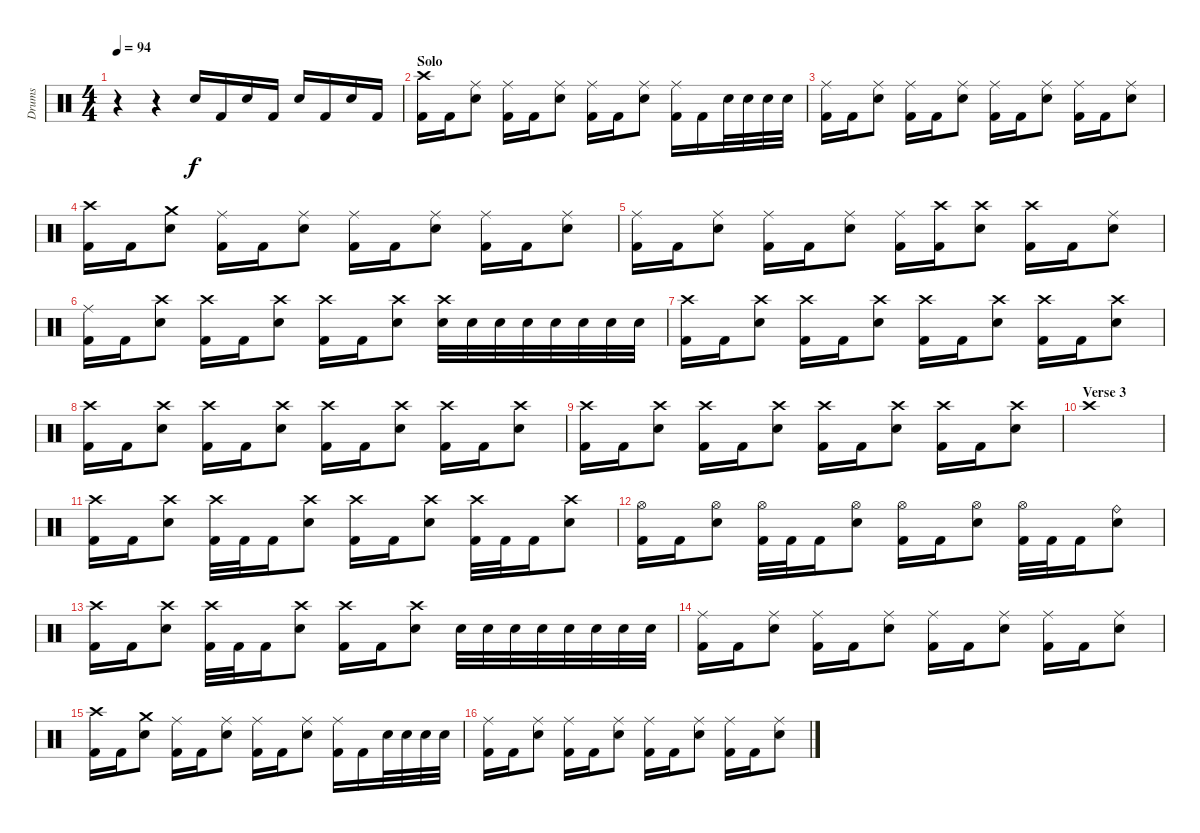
\track ("Drums" "Drums") {instrument percussion}
\staff {score}
\articulation defaults
\ts (4 4)
\tempo 94
\clef neutral
\ks c
r.4{dy f} r.4 "Electric Snare (hit)".16 "Kick (hit) 2".16 "Electric Snare (hit)".16 "Kick (hit) 2".16 "Electric Snare (hit)".16 "Kick (hit) 2".16 "Electric Snare (hit)".16 "Kick (hit) 2".16 |
\section ("" "Solo")
("Crash high (hit)" "Kick (hit) 2").16 "Kick (hit) 2".16 ("Ride (middle)" "Electric Snare (hit)").8 ("Ride (middle)" "Kick (hit) 2").16 "Kick (hit) 2".16 ("Ride (middle)" "Electric Snare (hit)").8 ("Ride (middle)" "Kick (hit) 2").16 "Kick (hit) 2".16 ("Ride (middle)" "Electric Snare (hit)").8 ("Ride (middle)" "Kick (hit) 2").16 "Kick (hit) 2".16 "Electric Snare (hit)".32 "Electric Snare (hit)".32 "Electric Snare (hit)".32 "Electric Snare (hit)".32 |
("Ride (middle)" "Kick (hit) 2").16 "Kick (hit) 2".16 ("Ride (middle)" "Electric Snare (hit)").8 ("Ride (middle)" "Kick (hit) 2").16 "Kick (hit) 2".16 ("Ride (middle)" "Electric Snare (hit)").8 ("Ride (middle)" "Kick (hit) 2").16 "Kick (hit) 2".16 ("Ride (middle)" "Electric Snare (hit)").8 ("Ride (middle)" "Kick (hit) 2").16 "Kick (hit) 2".16 ("Ride (middle)" "Electric Snare (hit)").8 |
("Crash high (hit)" "Kick (hit) 2").16 "Kick (hit) 2".16 ("Crash medium (hit)" "Electric Snare (hit)").8 ("Ride (middle)" "Kick (hit) 2").16 "Kick (hit) 2".16 ("Ride (middle)" "Electric Snare (hit)").8 ("Ride (middle)" "Kick (hit) 2").16 "Kick (hit) 2".16 ("Ride (middle)" "Electric Snare (hit)").8 ("Ride (middle)" "Kick (hit) 2").16 "Kick (hit) 2".16 ("Ride (middle)" "Electric Snare (hit)").8 |
("Ride (middle)" "Kick (hit) 2").16 "Kick (hit) 2".16 ("Ride (middle)" "Electric Snare (hit)").8 ("Ride (middle)" "Kick (hit) 2").16 "Kick (hit) 2".16 ("Ride (middle)" "Electric Snare (hit)").8 ("Ride (middle)" "Kick (hit) 2").16 ("Crash high (hit)" "Kick (hit) 2").16 ("Crash high (hit)" "Electric Snare (hit)").8 ("Crash high (hit)" "Kick (hit) 2").16 "Kick (hit) 2".16 ("Ride (middle)" "Electric Snare (hit)").8 |
("Ride (middle)" "Kick (hit) 2").16 "Kick (hit) 2".16 ("Crash high (hit)" "Electric Snare (hit)").8 ("Crash high (hit)" "Kick (hit) 2").16 "Kick (hit) 2".16 ("Crash high (hit)" "Electric Snare (hit)").8 ("Crash high (hit)" "Kick (hit) 2").16 "Kick (hit) 2".16 ("Crash high (hit)" "Electric Snare (hit)").8 ("Crash high (hit)" "Electric Snare (hit)").32 "Electric Snare (hit)".32 "Electric Snare (hit)".32 "Electric Snare (hit)".32 "Electric Snare (hit)".32 "Electric Snare (hit)".32 "Electric Snare (hit)".32 "Electric Snare (hit)".32 |
("Crash high (hit)" "Kick (hit) 2").16 "Kick (hit) 2".16 ("Crash high (hit)" "Electric Snare (hit)").8 ("Crash high (hit)" "Kick (hit) 2").16 "Kick (hit) 2".16 ("Crash high (hit)" "Electric Snare (hit)").8 ("Crash high (hit)" "Kick (hit) 2").16 "Kick (hit) 2".16 ("Crash high (hit)" "Electric Snare (hit)").8 ("Crash high (hit)" "Kick (hit) 2").16 "Kick (hit) 2".16 ("Crash high (hit)" "Electric Snare (hit)").8 |
("Crash high (hit)" "Kick (hit) 2").16 "Kick (hit) 2".16 ("Crash high (hit)" "Electric Snare (hit)").8 ("Crash high (hit)" "Kick (hit) 2").16 "Kick (hit) 2".16 ("Crash high (hit)" "Electric Snare (hit)").8 ("Crash high (hit)" "Kick (hit) 2").16 "Kick (hit) 2".16 ("Crash high (hit)" "Electric Snare (hit)").8 ("Crash high (hit)" "Kick (hit) 2").16 "Kick (hit) 2".16 ("Crash high (hit)" "Electric Snare (hit)").8 |
("Crash high (hit)" "Kick (hit) 2").16 "Kick (hit) 2".16 ("Crash high (hit)" "Electric Snare (hit)").8 ("Crash high (hit)" "Kick (hit) 2").16 "Kick (hit) 2".16 ("Crash high (hit)" "Electric Snare (hit)").8 ("Crash high (hit)" "Kick (hit) 2").16 "Kick (hit) 2".16 ("Crash high (hit)" "Electric Snare (hit)").8 ("Crash high (hit)" "Kick (hit) 2").16 "Kick (hit) 2".16 ("Crash high (hit)" "Electric Snare (hit)").8 |
\section ("" "Verse 3")
"Crash high (hit)".1 |
("Crash high (hit)" "Kick (hit) 2").16 "Kick (hit) 2".16 ("Crash high (hit)" "Electric Snare (hit)").8 ("Crash high (hit)" "Kick (hit) 2").32 "Kick (hit) 2".32 "Kick (hit) 2".16 ("Crash high (hit)" "Electric Snare (hit)").8 ("Crash high (hit)" "Kick (hit) 2").16 "Kick (hit) 2".16 ("Crash high (hit)" "Electric Snare (hit)").8 ("Crash high (hit)" "Kick (hit) 2").32 "Kick (hit) 2".32 "Kick (hit) 2".16 ("Crash high (hit)" "Electric Snare (hit)").8 |
("Hi-Hat (open)" "Kick (hit) 2").16 "Kick (hit) 2".16 ("Hi-Hat (open)" "Electric Snare (hit)").8 ("Hi-Hat (open)" "Kick (hit) 2").32 "Kick (hit) 2".32 "Kick (hit) 2".16 ("Hi-Hat (open)" "Electric Snare (hit)").8 ("Hi-Hat (open)" "Kick (hit) 2").16 "Kick (hit) 2".16 ("Hi-Hat (open)" "Electric Snare (hit)").8 ("Hi-Hat (open)" "Kick (hit) 2").32 "Kick (hit) 2".32 "Kick (hit) 2".16 ("Ride (bell)" "Electric Snare (hit)").8 |
("Crash high (hit)" "Kick (hit) 2").16 "Kick (hit) 2".16 ("Crash high (hit)" "Electric Snare (hit)").8 ("Crash high (hit)" "Kick (hit) 2").32 "Kick (hit) 2".32 "Kick (hit) 2".16 ("Crash high (hit)" "Electric Snare (hit)").8 ("Crash high (hit)" "Kick (hit) 2").16 "Kick (hit) 2".16 ("Crash high (hit)" "Electric Snare (hit)").8 "Electric Snare (hit)".32 "Electric Snare (hit)".32 "Electric Snare (hit)".32 "Electric Snare (hit)".32 "Electric Snare (hit)".32 "Electric Snare (hit)".32 "Electric Snare (hit)".32 "Electric Snare (hit)".32 |
("Ride (middle)" "Kick (hit) 2").16 "Kick (hit) 2".16 ("Ride (middle)" "Electric Snare (hit)").8 ("Ride (middle)" "Kick (hit) 2").16 "Kick (hit) 2".16 ("Ride (middle)" "Electric Snare (hit)").8 ("Ride (middle)" "Kick (hit) 2").16 "Kick (hit) 2".16 ("Ride (middle)" "Electric Snare (hit)").8 ("Ride (middle)" "Kick (hit) 2").16 "Kick (hit) 2".16 ("Ride (middle)" "Electric Snare (hit)").8 |
("Crash high (hit)" "Kick (hit) 2").16 "Kick (hit) 2".16 ("Crash medium (hit)" "Electric Snare (hit)").8 ("Ride (middle)" "Kick (hit) 2").16 "Kick (hit) 2".16 ("Ride (middle)" "Electric Snare (hit)").8 ("Ride (middle)" "Kick (hit) 2").16 "Kick (hit) 2".16 ("Ride (middle)" "Electric Snare (hit)").8 ("Ride (middle)" "Kick (hit) 2").16 "Kick (hit) 2".16 "Electric Snare (hit)".32 "Electric Snare (hit)".32 "Electric Snare (hit)".32 "Electric Snare (hit)".32 |
("Ride (middle)" "Kick (hit) 2").16 "Kick (hit) 2".16 ("Ride (middle)" "Electric Snare (hit)").8 ("Ride (middle)" "Kick (hit) 2").16 "Kick (hit) 2".16 ("Ride (middle)" "Electric Snare (hit)").8 ("Ride (middle)" "Kick (hit) 2").16 "Kick (hit) 2".16 ("Ride (middle)" "Electric Snare (hit)").8 ("Ride (middle)" "Kick (hit) 2").16 "Kick (hit) 2".16 ("Ride (middle)" "Electric Snare (hit)").8
